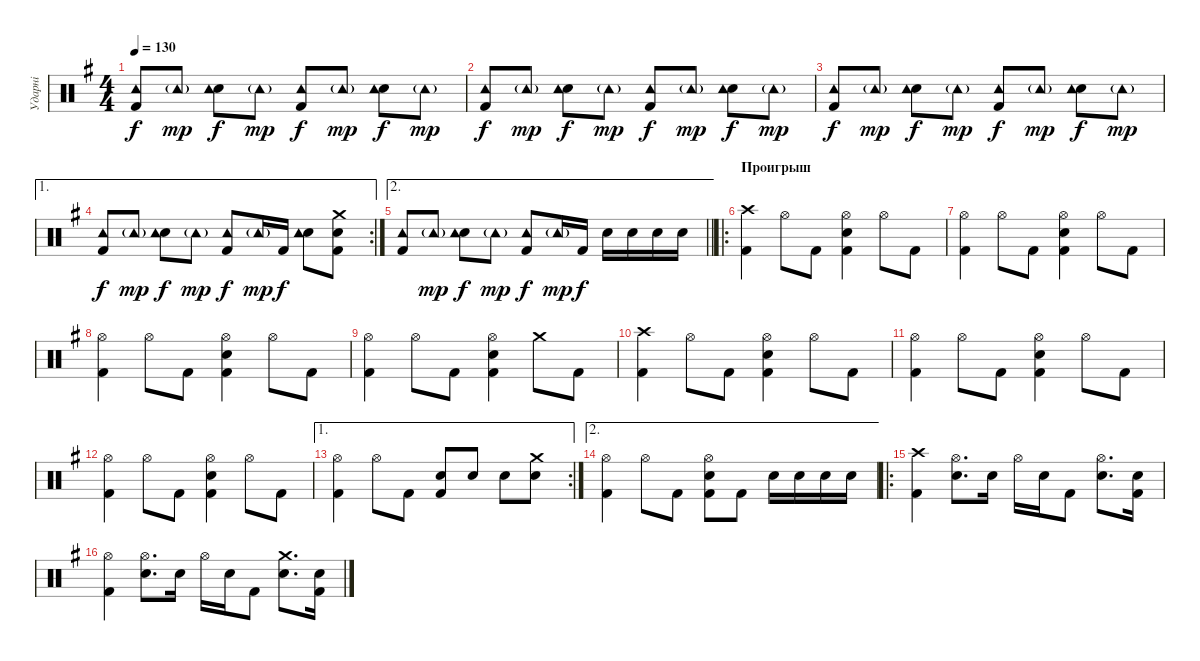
\track ("Ударні" "Ударні") {instrument percussion}
\staff {score}
\articulation defaults
\ts (4 4)
\tempo 130
\clef neutral
\ks eminor
("Kick (hit) 2" "Tambourine (hit)").8{dy f} "Tambourine (hit)"{g}.8{dy mp} ("Snare (hit) 2" "Tambourine (hit)").8{dy f} "Tambourine (hit)"{g}.8{dy mp} ("Kick (hit) 2" "Tambourine (hit)").8{dy f} "Tambourine (hit)"{g}.8{dy mp} ("Snare (hit) 2" "Tambourine (hit)").8{dy f} "Tambourine (hit)"{g}.8{dy mp} |
("Kick (hit) 2" "Tambourine (hit)").8{dy f} "Tambourine (hit)"{g}.8{dy mp} ("Snare (hit) 2" "Tambourine (hit)").8{dy f} "Tambourine (hit)"{g}.8{dy mp} ("Kick (hit) 2" "Tambourine (hit)").8{dy f} "Tambourine (hit)"{g}.8{dy mp} ("Snare (hit) 2" "Tambourine (hit)").8{dy f} "Tambourine (hit)"{g}.8{dy mp} |
("Kick (hit) 2" "Tambourine (hit)").8{dy f} "Tambourine (hit)"{g}.8{dy mp} ("Snare (hit) 2" "Tambourine (hit)").8{dy f} "Tambourine (hit)"{g}.8{dy mp} ("Kick (hit) 2" "Tambourine (hit)").8{dy f} "Tambourine (hit)"{g}.8{dy mp} ("Snare (hit) 2" "Tambourine (hit)").8{dy f} "Tambourine (hit)"{g}.8{dy mp} |
\ae 1
\rc 2
("Kick (hit) 2" "Tambourine (hit)").8{dy f} "Tambourine (hit)"{g}.8{dy mp} ("Snare (hit) 2" "Tambourine (hit)").8{dy f} "Tambourine (hit)"{g}.8{dy mp} ("Kick (hit) 2" "Tambourine (hit)").8{dy f} "Tambourine (hit)"{g}.16{dy mp} "Kick (hit) 2".16{dy f} ("Snare (hit) 2" "Tambourine (hit)").8 ("Kick (hit) 2" "Snare (hit) 2" "Crash medium (hit)").8 |
\ae 2
\barLineRight lightlight
("Kick (hit) 2" "Tambourine (hit)").8 "Tambourine (hit)"{g}.8{dy mp} ("Snare (hit) 2" "Tambourine (hit)").8{dy f} "Tambourine (hit)"{g}.8{dy mp} ("Kick (hit) 2" "Tambourine (hit)").8{dy f} "Tambourine (hit)"{g}.16{dy mp} "Kick (hit) 2".16{dy f} "Snare (hit) 2".16 "Snare (hit) 2".16 "Snare (hit) 2".16 "Snare (hit) 2".16 |
\ro
\section ("" "Проигрыш")
("Kick (hit) 2" "Crash high (hit)").4 "Hi-Hat (open)".8 "Kick (hit) 2".8 ("Kick (hit) 2" "Snare (hit) 2" "Hi-Hat (open)").4 "Hi-Hat (open)".8 "Kick (hit) 2".8 |
("Kick (hit) 2" "Hi-Hat (open)").4 "Hi-Hat (open)".8 "Kick (hit) 2".8 ("Kick (hit) 2" "Snare (hit) 2" "Hi-Hat (open)").4 "Hi-Hat (open)".8 "Kick (hit) 2".8 |
("Kick (hit) 2" "Hi-Hat (open)").4 "Hi-Hat (open)".8 "Kick (hit) 2".8 ("Kick (hit) 2" "Snare (hit) 2" "Hi-Hat (open)").4 "Hi-Hat (open)".8 "Kick (hit) 2".8 |
("Kick (hit) 2" "Hi-Hat (open)").4 "Hi-Hat (open)".8 "Kick (hit) 2".8 ("Kick (hit) 2" "Snare (hit) 2" "Hi-Hat (open)").4 "Crash medium (hit)".8 "Kick (hit) 2".8 |
("Kick (hit) 2" "Crash high (hit)").4 "Hi-Hat (open)".8 "Kick (hit) 2".8 ("Kick (hit) 2" "Snare (hit) 2" "Hi-Hat (open)").4 "Hi-Hat (open)".8 "Kick (hit) 2".8 |
("Kick (hit) 2" "Hi-Hat (open)").4 "Hi-Hat (open)".8 "Kick (hit) 2".8 ("Kick (hit) 2" "Snare (hit) 2" "Hi-Hat (open)").4 "Hi-Hat (open)".8 "Kick (hit) 2".8 |
("Kick (hit) 2" "Hi-Hat (open)").4 "Hi-Hat (open)".8 "Kick (hit) 2".8 ("Kick (hit) 2" "Snare (hit) 2" "Hi-Hat (open)").4 "Hi-Hat (open)".8 "Kick (hit) 2".8 |
\ae 1
\rc 2
("Kick (hit) 2" "Hi-Hat (open)").4 "Hi-Hat (open)".8 "Kick (hit) 2".8 ("Kick (hit) 2" "Snare (hit) 2").8 "Snare (hit) 2".8 "Snare (hit) 2".8 ("Snare (hit) 2" "Crash medium (hit)").8 |
\ae 2
("Kick (hit) 2" "Hi-Hat (open)").4 "Hi-Hat (open)".8 "Kick (hit) 2".8 ("Kick (hit) 2" "Snare (hit) 2" "Hi-Hat (open)").8 "Kick (hit) 2".8 "Snare (hit) 2".16 "Snare (hit) 2".16 "Snare (hit) 2".16 "Snare (hit) 2".16 |
\ro
("Kick (hit) 2" "Crash high (hit)").4 ("Snare (hit) 2" "Hi-Hat (open)").8{d} "Snare (hit) 2".16 "Hi-Hat (open)".16 "Snare (hit) 2".16 "Kick (hit) 2".8 ("Snare (hit) 2" "Hi-Hat (open)").8{d} ("Kick (hit) 2" "Snare (hit) 2").16 |
("Kick (hit) 2" "Hi-Hat (open)").4 ("Snare (hit) 2" "Hi-Hat (open)").8{d} "Snare (hit) 2".16 "Hi-Hat (open)".16 "Snare (hit) 2".16 "Kick (hit) 2".8 ("Snare (hit) 2" "Crash medium (hit)").8{d} ("Kick (hit) 2" "Snare (hit) 2").16
